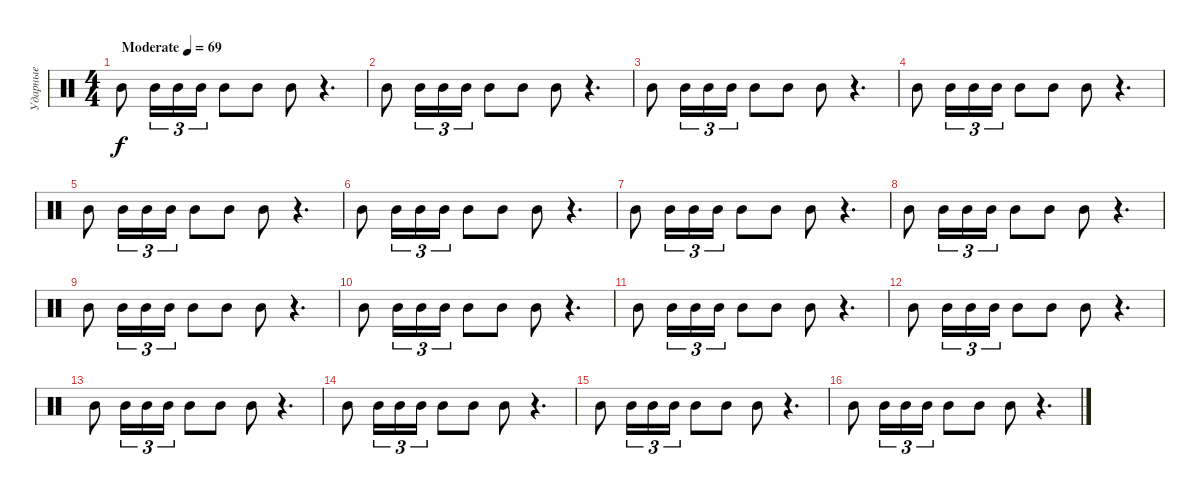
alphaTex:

\track ("Ударные" "Ударные") {instrument percussion}
\staff {score}
\articulation defaults
\ts (4 4)
\tempo (69 "Moderate")
\clef neutral
\ks c "Mid Tom (hit)".8{dy f} "Mid Tom (hit)".16{tu (3 2)} "Mid Tom (hit)".16{tu (3 2)} "Mid Tom (hit)".16{tu (3 2)} "Mid Tom (hit)".8 "Mid Tom (hit)".8 "Mid Tom (hit)".8
r.4{d} |
"Mid Tom (hit)".8 "Mid Tom (hit)".16{tu (3 2)} "Mid Tom (hit)".16{tu (3 2)} "Mid Tom (hit)".16{tu (3 2)} "Mid Tom (hit)".8 "Mid Tom (hit)".8 "Mid Tom (hit)".8 r.4{d} |
"Mid Tom (hit)".8 "Mid Tom (hit)".16{tu (3 2)} "Mid Tom (hit)".16{tu (3 2)} "Mid Tom (hit)".16{tu (3 2)} "Mid Tom (hit)".8 "Mid Tom (hit)".8 "Mid Tom (hit)".8 r.4{d} |
"Mid Tom (hit)".8 "Mid Tom (hit)".16{tu (3 2)} "Mid Tom (hit)".16{tu (3 2)} "Mid Tom (hit)".16{tu (3 2)} "Mid Tom (hit)".8 "Mid Tom (hit)".8 "Mid Tom (hit)".8 r.4{d} |
"Mid Tom (hit)".8 "Mid Tom (hit)".16{tu (3 2)} "Mid Tom (hit)".16{tu (3 2)} "Mid Tom (hit)".16{tu (3 2)} "Mid Tom (hit)".8 "Mid Tom (hit)".8 "Mid Tom (hit)".8 r.4{d} |
"Mid Tom (hit)".8 "Mid Tom (hit)".16{tu (3 2)} "Mid Tom (hit)".16{tu (3 2)} "Mid Tom (hit)".16{tu (3 2)} "Mid Tom (hit)".8 "Mid Tom (hit)".8 "Mid Tom (hit)".8 r.4{d} |
"Mid Tom (hit)".8 "Mid Tom (hit)".16{tu (3 2)} "Mid Tom (hit)".16{tu (3 2)} "Mid Tom (hit)".16{tu (3 2)} "Mid Tom (hit)".8 "Mid Tom (hit)".8 "Mid Tom (hit)".8 r.4{d} |
"Mid Tom (hit)".8 "Mid Tom (hit)".16{tu (3 2)} "Mid Tom (hit)".16{tu (3 2)} "Mid Tom (hit)".16{tu (3 2)} "Mid Tom (hit)".8 "Mid Tom (hit)".8 "Mid Tom (hit)".8 r.4{d} |
"Mid Tom (hit)".8 "Mid Tom (hit)".16{tu (3 2)} "Mid Tom (hit)".16{tu (3 2)} "Mid Tom (hit)".16{tu (3 2)} "Mid Tom (hit)".8 "Mid Tom (hit)".8 "Mid Tom (hit)".8 r.4{d} |
"Mid Tom (hit)".8 "Mid Tom (hit)".16{tu (3 2)} "Mid Tom (hit)".16{tu (3 2)} "Mid Tom (hit)".16{tu (3 2)} "Mid Tom (hit)".8 "Mid Tom (hit)".8 "Mid Tom (hit)".8 r.4{d} |
"Mid Tom (hit)".8 "Mid Tom (hit)".16{tu (3 2)} "Mid Tom (hit)".16{tu (3 2)} "Mid Tom (hit)".16{tu (3 2)} "Mid Tom (hit)".8 "Mid Tom (hit)".8 "Mid Tom (hit)".8 r.4{d} |
"Mid Tom (hit)".8 "Mid Tom (hit)".16{tu (3 2)} "Mid Tom (hit)".16{tu (3 2)} "Mid Tom (hit)".16{tu (3 2)} "Mid Tom (hit)".8 "Mid Tom (hit)".8 "Mid Tom (hit)".8 r.4{d} |
"Mid Tom (hit)".8 "Mid Tom (hit)".16{tu (3 2)} "Mid Tom (hit)".16{tu (3 2)} "Mid Tom (hit)".16{tu (3 2)} "Mid Tom (hit)".8 "Mid Tom (hit)".8 "Mid Tom (hit)".8 r.4{d} |
"Mid Tom (hit)".8 "Mid Tom (hit)".16{tu (3 2)} "Mid Tom (hit)".16{tu (3 2)} "Mid Tom (hit)".16{tu (3 2)} "Mid Tom (hit)".8 "Mid Tom (hit)".8 "Mid Tom (hit)".8 r.4{d} |
"Mid Tom (hit)".8 "Mid Tom (hit)".16{tu (3 2)} "Mid Tom (hit)".16{tu (3 2)} "Mid Tom (hit)".16{tu (3 2)} "Mid Tom (hit)".8 "Mid Tom (hit)".8 "Mid Tom (hit)".8 r.4{d} |
"Mid Tom (hit)".8 "Mid Tom (hit)".16{tu (3 2)} "Mid Tom (hit)".16{tu (3 2)} "Mid Tom (hit)".16{tu (3 2)} "Mid Tom (hit)".8 "Mid Tom (hit)".8 "Mid Tom (hit)".8 r.4{d}
